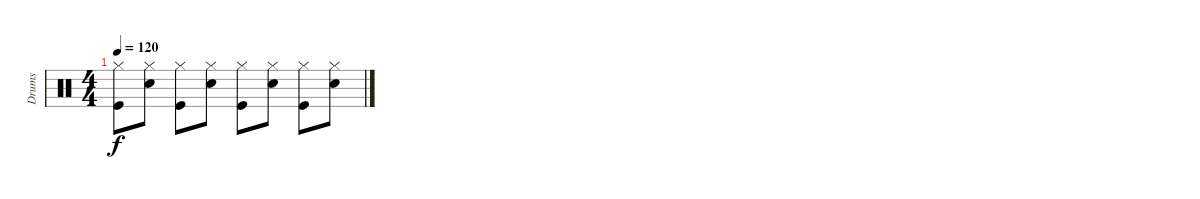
\track ("Drums" "Drums") {instrument percussion}
\staff {score}
\articulation defaults
\ts (4 4)
\tempo 120
\clef neutral
\ks c
("Hi-Hat (closed)" "Kick (hit)").8{dy f} ("Hi-Hat (closed)" "Snare (hit) 2").8 ("Hi-Hat (closed)" "Kick (hit)").8 ("Hi-Hat (closed)" "Snare (hit) 2").8 ("Hi-Hat (closed)" "Kick (hit)").8 ("Hi-Hat (closed)" "Snare (hit) 2").8 ("Hi-Hat (closed)" "Kick (hit)").8 ("Hi-Hat (closed)" "Snare (hit) 2").8
